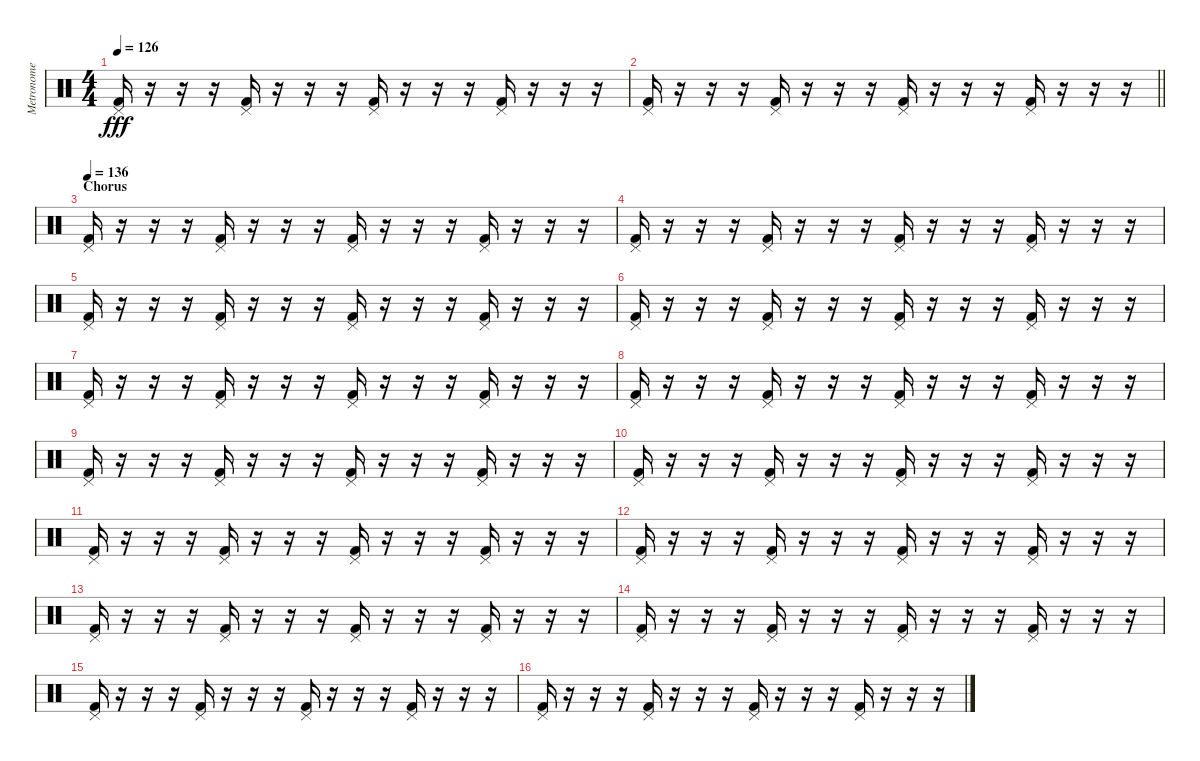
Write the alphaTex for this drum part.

\track ("Metronome" "Metronome") {mute instrument percussion}
\staff {score}
\articulation defaults
\ts (4 4)
\tempo 126
\clef neutral
\ks c
("Pedal Hi-Hat (hit)" "Kick (hit) 2").16{dy fff} r.16 r.16 r.16 ("Pedal Hi-Hat (hit)" "Kick (hit) 2").16 r.16 r.16 r.16 ("Pedal Hi-Hat (hit)" "Kick (hit) 2").16 r.16 r.16 r.16 ("Pedal Hi-Hat (hit)" "Kick (hit) 2").16 r.16 r.16 r.16 |
\barLineRight lightlight
("Pedal Hi-Hat (hit)" "Kick (hit) 2").16 r.16 r.16 r.16 ("Pedal Hi-Hat (hit)" "Kick (hit) 2").16 r.16 r.16 r.16 ("Pedal Hi-Hat (hit)" "Kick (hit) 2").16 r.16 r.16 r.16 ("Pedal Hi-Hat (hit)" "Kick (hit) 2").16 r.16 r.16 r.16 |
\section ("" "Chorus")
\tempo 136
("Pedal Hi-Hat (hit)" "Kick (hit) 2").16 r.16 r.16 r.16 ("Pedal Hi-Hat (hit)" "Kick (hit) 2").16 r.16 r.16 r.16 ("Pedal Hi-Hat (hit)" "Kick (hit) 2").16 r.16 r.16 r.16 ("Pedal Hi-Hat (hit)" "Kick (hit) 2").16 r.16 r.16 r.16 |
("Pedal Hi-Hat (hit)" "Kick (hit) 2").16 r.16 r.16 r.16 ("Pedal Hi-Hat (hit)" "Kick (hit) 2").16 r.16 r.16 r.16 ("Pedal Hi-Hat (hit)" "Kick (hit) 2").16 r.16 r.16 r.16 ("Pedal Hi-Hat (hit)" "Kick (hit) 2").16 r.16 r.16 r.16 |
("Pedal Hi-Hat (hit)" "Kick (hit) 2").16 r.16 r.16 r.16 ("Pedal Hi-Hat (hit)" "Kick (hit) 2").16 r.16 r.16 r.16 ("Pedal Hi-Hat (hit)" "Kick (hit) 2").16 r.16 r.16 r.16 ("Pedal Hi-Hat (hit)" "Kick (hit) 2").16 r.16 r.16 r.16 |
("Pedal Hi-Hat (hit)" "Kick (hit) 2").16 r.16 r.16 r.16 ("Pedal Hi-Hat (hit)" "Kick (hit) 2").16 r.16 r.16 r.16 ("Pedal Hi-Hat (hit)" "Kick (hit) 2").16 r.16 r.16 r.16 ("Pedal Hi-Hat (hit)" "Kick (hit) 2").16 r.16 r.16 r.16 |
("Pedal Hi-Hat (hit)" "Kick (hit) 2").16 r.16 r.16 r.16 ("Pedal Hi-Hat (hit)" "Kick (hit) 2").16 r.16 r.16 r.16 ("Pedal Hi-Hat (hit)" "Kick (hit) 2").16 r.16 r.16 r.16 ("Pedal Hi-Hat (hit)" "Kick (hit) 2").16 r.16 r.16 r.16 |
("Pedal Hi-Hat (hit)" "Kick (hit) 2").16 r.16 r.16 r.16 ("Pedal Hi-Hat (hit)" "Kick (hit) 2").16 r.16 r.16 r.16 ("Pedal Hi-Hat (hit)" "Kick (hit) 2").16 r.16 r.16 r.16 ("Pedal Hi-Hat (hit)" "Kick (hit) 2").16 r.16 r.16 r.16 |
("Pedal Hi-Hat (hit)" "Kick (hit) 2").16 r.16 r.16 r.16 ("Pedal Hi-Hat (hit)" "Kick (hit) 2").16 r.16 r.16 r.16 ("Pedal Hi-Hat (hit)" "Kick (hit) 2").16 r.16 r.16 r.16 ("Pedal Hi-Hat (hit)" "Kick (hit) 2").16 r.16 r.16 r.16 |
("Pedal Hi-Hat (hit)" "Kick (hit) 2").16 r.16 r.16 r.16 ("Pedal Hi-Hat (hit)" "Kick (hit) 2").16 r.16 r.16 r.16 ("Pedal Hi-Hat (hit)" "Kick (hit) 2").16 r.16 r.16 r.16 ("Pedal Hi-Hat (hit)" "Kick (hit) 2").16 r.16 r.16 r.16 |
("Pedal Hi-Hat (hit)" "Kick (hit) 2").16 r.16 r.16 r.16 ("Pedal Hi-Hat (hit)" "Kick (hit) 2").16 r.16 r.16 r.16 ("Pedal Hi-Hat (hit)" "Kick (hit) 2").16 r.16 r.16 r.16 ("Pedal Hi-Hat (hit)" "Kick (hit) 2").16 r.16 r.16 r.16 |
("Pedal Hi-Hat (hit)" "Kick (hit) 2").16 r.16 r.16 r.16 ("Pedal Hi-Hat (hit)" "Kick (hit) 2").16 r.16 r.16 r.16 ("Pedal Hi-Hat (hit)" "Kick (hit) 2").16 r.16 r.16 r.16 ("Pedal Hi-Hat (hit)" "Kick (hit) 2").16 r.16 r.16 r.16 |
("Pedal Hi-Hat (hit)" "Kick (hit) 2").16 r.16 r.16 r.16 ("Pedal Hi-Hat (hit)" "Kick (hit) 2").16 r.16 r.16 r.16 ("Pedal Hi-Hat (hit)" "Kick (hit) 2").16 r.16 r.16 r.16 ("Pedal Hi-Hat (hit)" "Kick (hit) 2").16 r.16 r.16 r.16 |
("Pedal Hi-Hat (hit)" "Kick (hit) 2").16 r.16 r.16 r.16 ("Pedal Hi-Hat (hit)" "Kick (hit) 2").16 r.16 r.16 r.16 ("Pedal Hi-Hat (hit)" "Kick (hit) 2").16 r.16 r.16 r.16 ("Pedal Hi-Hat (hit)" "Kick (hit) 2").16 r.16 r.16 r.16 |
("Pedal Hi-Hat (hit)" "Kick (hit) 2").16 r.16 r.16 r.16 ("Pedal Hi-Hat (hit)" "Kick (hit) 2").16 r.16 r.16 r.16 ("Pedal Hi-Hat (hit)" "Kick (hit) 2").16 r.16 r.16 r.16 ("Pedal Hi-Hat (hit)" "Kick (hit) 2").16 r.16 r.16 r.16 |
("Pedal Hi-Hat (hit)" "Kick (hit) 2").16 r.16 r.16 r.16 ("Pedal Hi-Hat (hit)" "Kick (hit) 2").16 r.16 r.16 r.16 ("Pedal Hi-Hat (hit)" "Kick (hit) 2").16 r.16 r.16 r.16 ("Pedal Hi-Hat (hit)" "Kick (hit) 2").16 r.16 r.16 r.16
